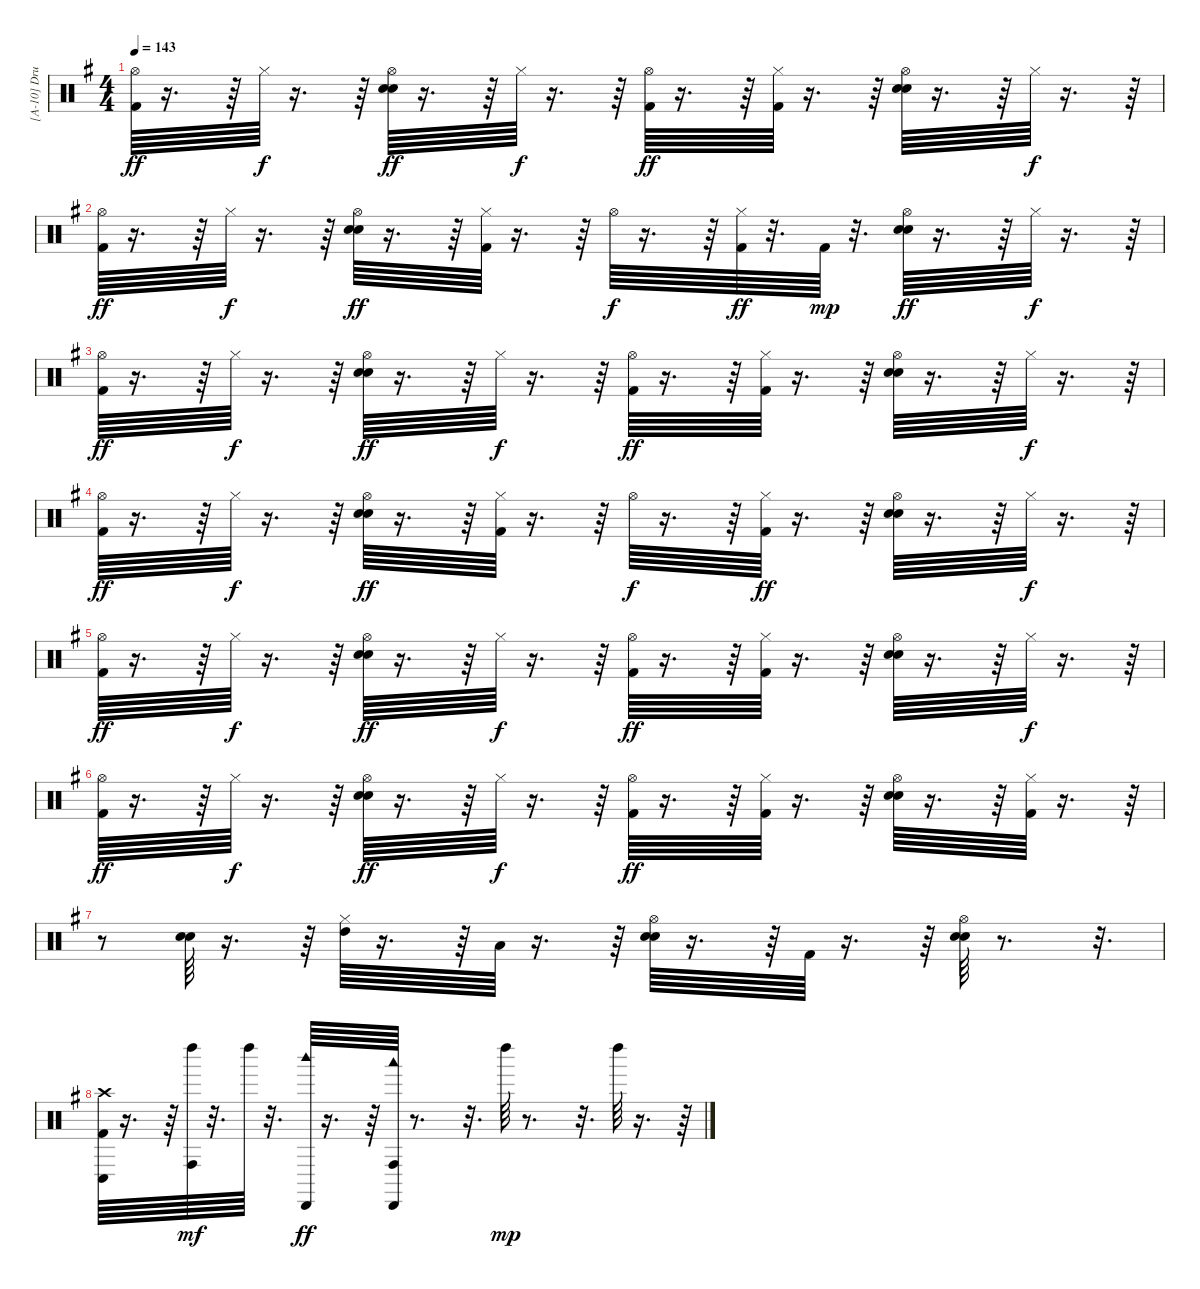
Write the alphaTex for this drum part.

\track ("[A-10] Drums" "[A-10] Dru") {instrument percussion}
\staff {score}
\articulation defaults
\ts (4 4)
\tempo 143
\clef neutral
\ks g
("Hi-Hat (open)" "Kick (hit) 2").64{dy ff} r.16{d} r.64 "Hi-Hat (closed)".64{dy f} r.16{d} r.64 ("Hi-Hat (open)" "Electric Snare (hit)" "Snare (hit) 2").64{dy ff} r.16{d} r.64 "Hi-Hat (closed)".64{dy f} r.16{d} r.64 ("Hi-Hat (open)" "Kick (hit) 2").64{dy ff} r.16{d} r.64 ("Hi-Hat (closed)" "Kick (hit) 2").64 r.16{d} r.64 ("Hi-Hat (open)" "Electric Snare (hit)" "Snare (hit) 2").64 r.16{d} r.64 "Hi-Hat (closed)".64{dy f} r.16{d} r.64 |
("Hi-Hat (open)" "Kick (hit) 2").64{dy ff} r.16{d} r.64 "Hi-Hat (closed)".64{dy f} r.16{d} r.64 ("Hi-Hat (open)" "Electric Snare (hit)" "Snare (hit) 2").64{dy ff} r.16{d} r.64 ("Hi-Hat (closed)" "Kick (hit) 2").64 r.16{d} r.64 "Hi-Hat (open)".64{dy f} r.16{d} r.64 ("Hi-Hat (closed)" "Kick (hit) 2").64{dy ff} r.32{d} "Kick (hit) 2".64{dy mp} r.32{d} ("Hi-Hat (open)" "Electric Snare (hit)" "Snare (hit) 2").64{dy ff} r.16{d} r.64 "Hi-Hat (closed)".64{dy f} r.16{d} r.64 |
("Hi-Hat (open)" "Kick (hit) 2").64{dy ff} r.16{d} r.64 "Hi-Hat (closed)".64{dy f} r.16{d} r.64 ("Hi-Hat (open)" "Electric Snare (hit)" "Snare (hit) 2").64{dy ff} r.16{d} r.64 "Hi-Hat (closed)".64{dy f} r.16{d} r.64 ("Hi-Hat (open)" "Kick (hit) 2").64{dy ff} r.16{d} r.64 ("Hi-Hat (closed)" "Kick (hit) 2").64 r.16{d} r.64 ("Hi-Hat (open)" "Electric Snare (hit)" "Snare (hit) 2").64 r.16{d} r.64 "Hi-Hat (closed)".64{dy f} r.16{d} r.64 |
("Hi-Hat (open)" "Kick (hit) 2").64{dy ff} r.16{d} r.64 "Hi-Hat (closed)".64{dy f} r.16{d} r.64 ("Hi-Hat (open)" "Electric Snare (hit)" "Snare (hit) 2").64{dy ff} r.16{d} r.64 ("Hi-Hat (closed)" "Kick (hit) 2").64 r.16{d} r.64 "Hi-Hat (open)".64{dy f} r.16{d} r.64 ("Hi-Hat (closed)" "Kick (hit) 2").64{dy ff} r.16{d} r.64 ("Hi-Hat (open)" "Electric Snare (hit)" "Snare (hit) 2").64 r.16{d} r.64 "Hi-Hat (closed)".64{dy f} r.16{d} r.64 |
("Hi-Hat (open)" "Kick (hit) 2").64{dy ff} r.16{d} r.64 "Hi-Hat (closed)".64{dy f} r.16{d} r.64 ("Hi-Hat (open)" "Electric Snare (hit)" "Snare (hit) 2").64{dy ff} r.16{d} r.64 "Hi-Hat (closed)".64{dy f} r.16{d} r.64 ("Hi-Hat (open)" "Kick (hit) 2").64{dy ff} r.16{d} r.64 ("Hi-Hat (closed)" "Kick (hit) 2").64 r.16{d} r.64 ("Hi-Hat (open)" "Electric Snare (hit)" "Snare (hit) 2").64 r.16{d} r.64 "Hi-Hat (closed)".64{dy f} r.16{d} r.64 |
("Hi-Hat (open)" "Kick (hit) 2").64{dy ff} r.16{d} r.64 "Hi-Hat (closed)".64{dy f} r.16{d} r.64 ("Hi-Hat (open)" "Electric Snare (hit)" "Snare (hit) 2").64{dy ff} r.16{d} r.64 "Hi-Hat (closed)".64{dy f} r.16{d} r.64 ("Hi-Hat (open)" "Kick (hit) 2").64{dy ff} r.16{d} r.64 ("Hi-Hat (closed)" "Kick (hit) 2").64 r.16{d} r.64 ("Hi-Hat (open)" "Electric Snare (hit)" "Snare (hit) 2").64 r.16{d} r.64 ("Hi-Hat (closed)" "Kick (hit) 2").64 r.16{d} r.64 |
r.8 ("Electric Snare (hit)" "Snare (hit) 2").64 r.16{d} r.64 ("Hi-Hat (closed)" "High Tom (hit)").64 r.16{d} r.64 "Low Tom (hit)".64 r.16{d} r.64 ("Hi-Hat (open)" "Electric Snare (hit)" "Snare (hit) 2").64 r.16{d} r.64 "Kick (hit) 2".64 r.16{d} r.64 ("Hi-Hat (open)" "Electric Snare (hit)" "Snare (hit) 2").64 r.8{d} r.32{d} |
("Conga low (hit)" "Crash high (hit)" "Kick (hit) 2").64 r.16{d} r.64 ("Conga high (hit)" "Left Maraca (hit)").64{dy mf} r.32{d} "Left Maraca (hit)".64 r.32{d} ("Cabasa (hit)" "Woodblock high (hit)").64{dy ff} r.16{d} r.64 ("Conga high (hit)" "Cabasa (hit)" "Woodblock low (hit)").64 r.8{d} r.32{d} "Left Maraca (hit)".64{dy mp} r.8{d} r.32{d} "Left Maraca (hit)".64 r.16{d} r.64
